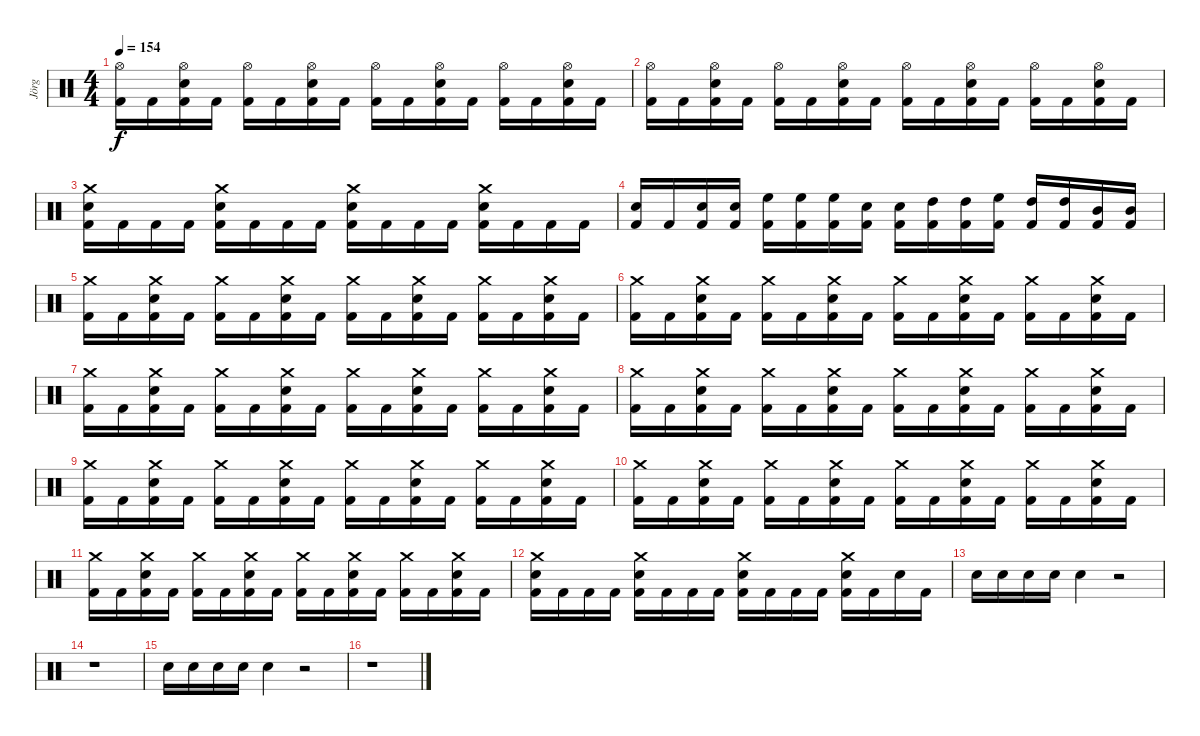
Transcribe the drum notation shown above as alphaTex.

\track ("Jörg" "Jörg") {instrument percussion}
\staff {score}
\articulation defaults
\ts (4 4)
\tempo 154
\clef neutral
\ks c
("Hi-Hat (open)" "Kick (hit) 2").16{dy f} "Kick (hit) 2".16 ("Snare (hit) 2" "Hi-Hat (open)" "Kick (hit) 2").16 "Kick (hit) 2".16 ("Hi-Hat (open)" "Kick (hit) 2").16 "Kick (hit) 2".16 ("Snare (hit) 2" "Hi-Hat (open)" "Kick (hit) 2").16 "Kick (hit) 2".16 ("Hi-Hat (open)" "Kick (hit) 2").16 "Kick (hit) 2".16 ("Snare (hit) 2" "Hi-Hat (open)" "Kick (hit) 2").16 "Kick (hit) 2".16 ("Hi-Hat (open)" "Kick (hit) 2").16 "Kick (hit) 2".16 ("Snare (hit) 2" "Hi-Hat (open)" "Kick (hit) 2").16 "Kick (hit) 2".16 |
("Hi-Hat (open)" "Kick (hit) 2").16 "Kick (hit) 2".16 ("Snare (hit) 2" "Hi-Hat (open)" "Kick (hit) 2").16 "Kick (hit) 2".16 ("Hi-Hat (open)" "Kick (hit) 2").16 "Kick (hit) 2".16 ("Snare (hit) 2" "Hi-Hat (open)" "Kick (hit) 2").16 "Kick (hit) 2".16 ("Hi-Hat (open)" "Kick (hit) 2").16 "Kick (hit) 2".16 ("Snare (hit) 2" "Hi-Hat (open)" "Kick (hit) 2").16 "Kick (hit) 2".16 ("Hi-Hat (open)" "Kick (hit) 2").16 "Kick (hit) 2".16 ("Snare (hit) 2" "Hi-Hat (open)" "Kick (hit) 2").16 "Kick (hit) 2".16 |
("Snare (hit) 2" "Crash medium (hit)" "Kick (hit) 2").16 "Kick (hit) 2".16 "Kick (hit) 2".16 "Kick (hit) 2".16 ("Snare (hit) 2" "Crash medium (hit)" "Kick (hit) 2").16 "Kick (hit) 2".16 "Kick (hit) 2".16 "Kick (hit) 2".16 ("Snare (hit) 2" "Crash medium (hit)" "Kick (hit) 2").16 "Kick (hit) 2".16 "Kick (hit) 2".16 "Kick (hit) 2".16 ("Snare (hit) 2" "Crash medium (hit)" "Kick (hit) 2").16 "Kick (hit) 2".16 "Kick (hit) 2".16 "Kick (hit) 2".16 |
("Snare (hit) 2" "Kick (hit) 2").16 "Kick (hit) 2".16 ("Snare (hit) 2" "Kick (hit) 2").16 ("Snare (hit) 2" "Kick (hit) 2").16 ("High Floor Tom (hit)" "Kick (hit) 2").16 ("High Floor Tom (hit)" "Kick (hit) 2").16 ("High Floor Tom (hit)" "Kick (hit) 2").16 ("Snare (hit) 2" "Kick (hit) 2").16 ("Snare (hit) 2" "Kick (hit) 2").16 ("High Tom (hit)" "Kick (hit) 2").16 ("High Tom (hit)" "Kick (hit) 2").16 ("High Floor Tom (hit)" "Kick (hit) 2").16 ("High Tom (hit)" "Kick (hit) 2").16 ("High Tom (hit)" "Kick (hit) 2").16 ("Mid Tom (hit)" "Kick (hit) 2").16 ("Mid Tom (hit)" "Kick (hit) 2").16 |
("Crash medium (hit)" "Kick (hit) 2").16 "Kick (hit) 2".16 ("Snare (hit) 2" "Crash medium (hit)" "Kick (hit) 2").16 "Kick (hit) 2".16 ("Crash medium (hit)" "Kick (hit) 2").16 "Kick (hit) 2".16 ("Snare (hit) 2" "Crash medium (hit)" "Kick (hit) 2").16 "Kick (hit) 2".16 ("Crash medium (hit)" "Kick (hit) 2").16 "Kick (hit) 2".16 ("Snare (hit) 2" "Crash medium (hit)" "Kick (hit) 2").16 "Kick (hit) 2".16 ("Crash medium (hit)" "Kick (hit) 2").16 "Kick (hit) 2".16 ("Snare (hit) 2" "Crash medium (hit)" "Kick (hit) 2").16 "Kick (hit) 2".16 |
("Crash medium (hit)" "Kick (hit) 2").16 "Kick (hit) 2".16 ("Snare (hit) 2" "Crash medium (hit)" "Kick (hit) 2").16 "Kick (hit) 2".16 ("Crash medium (hit)" "Kick (hit) 2").16 "Kick (hit) 2".16 ("Snare (hit) 2" "Crash medium (hit)" "Kick (hit) 2").16 "Kick (hit) 2".16 ("Crash medium (hit)" "Kick (hit) 2").16 "Kick (hit) 2".16 ("Snare (hit) 2" "Crash medium (hit)" "Kick (hit) 2").16 "Kick (hit) 2".16 ("Crash medium (hit)" "Kick (hit) 2").16 "Kick (hit) 2".16 ("Snare (hit) 2" "Crash medium (hit)" "Kick (hit) 2").16 "Kick (hit) 2".16 |
("Crash medium (hit)" "Kick (hit) 2").16 "Kick (hit) 2".16 ("Snare (hit) 2" "Crash medium (hit)" "Kick (hit) 2").16 "Kick (hit) 2".16 ("Crash medium (hit)" "Kick (hit) 2").16 "Kick (hit) 2".16 ("Snare (hit) 2" "Crash medium (hit)" "Kick (hit) 2").16 "Kick (hit) 2".16 ("Crash medium (hit)" "Kick (hit) 2").16 "Kick (hit) 2".16 ("Snare (hit) 2" "Crash medium (hit)" "Kick (hit) 2").16 "Kick (hit) 2".16 ("Crash medium (hit)" "Kick (hit) 2").16 "Kick (hit) 2".16 ("Snare (hit) 2" "Crash medium (hit)" "Kick (hit) 2").16 "Kick (hit) 2".16 |
("Crash medium (hit)" "Kick (hit) 2").16 "Kick (hit) 2".16 ("Snare (hit) 2" "Crash medium (hit)" "Kick (hit) 2").16 "Kick (hit) 2".16 ("Crash medium (hit)" "Kick (hit) 2").16 "Kick (hit) 2".16 ("Snare (hit) 2" "Crash medium (hit)" "Kick (hit) 2").16 "Kick (hit) 2".16 ("Crash medium (hit)" "Kick (hit) 2").16 "Kick (hit) 2".16 ("Snare (hit) 2" "Crash medium (hit)" "Kick (hit) 2").16 "Kick (hit) 2".16 ("Crash medium (hit)" "Kick (hit) 2").16 "Kick (hit) 2".16 ("Snare (hit) 2" "Crash medium (hit)" "Kick (hit) 2").16 "Kick (hit) 2".16 |
("Crash medium (hit)" "Kick (hit) 2").16 "Kick (hit) 2".16 ("Snare (hit) 2" "Crash medium (hit)" "Kick (hit) 2").16 "Kick (hit) 2".16 ("Crash medium (hit)" "Kick (hit) 2").16 "Kick (hit) 2".16 ("Snare (hit) 2" "Crash medium (hit)" "Kick (hit) 2").16 "Kick (hit) 2".16 ("Crash medium (hit)" "Kick (hit) 2").16 "Kick (hit) 2".16 ("Snare (hit) 2" "Crash medium (hit)" "Kick (hit) 2").16 "Kick (hit) 2".16 ("Crash medium (hit)" "Kick (hit) 2").16 "Kick (hit) 2".16 ("Snare (hit) 2" "Crash medium (hit)" "Kick (hit) 2").16 "Kick (hit) 2".16 |
("Crash medium (hit)" "Kick (hit) 2").16 "Kick (hit) 2".16 ("Snare (hit) 2" "Crash medium (hit)" "Kick (hit) 2").16 "Kick (hit) 2".16 ("Crash medium (hit)" "Kick (hit) 2").16 "Kick (hit) 2".16 ("Snare (hit) 2" "Crash medium (hit)" "Kick (hit) 2").16 "Kick (hit) 2".16 ("Crash medium (hit)" "Kick (hit) 2").16 "Kick (hit) 2".16 ("Snare (hit) 2" "Crash medium (hit)" "Kick (hit) 2").16 "Kick (hit) 2".16 ("Crash medium (hit)" "Kick (hit) 2").16 "Kick (hit) 2".16 ("Snare (hit) 2" "Crash medium (hit)" "Kick (hit) 2").16 "Kick (hit) 2".16 |
("Crash medium (hit)" "Kick (hit) 2").16 "Kick (hit) 2".16 ("Snare (hit) 2" "Crash medium (hit)" "Kick (hit) 2").16 "Kick (hit) 2".16 ("Crash medium (hit)" "Kick (hit) 2").16 "Kick (hit) 2".16 ("Snare (hit) 2" "Crash medium (hit)" "Kick (hit) 2").16 "Kick (hit) 2".16 ("Crash medium (hit)" "Kick (hit) 2").16 "Kick (hit) 2".16 ("Snare (hit) 2" "Crash medium (hit)" "Kick (hit) 2").16 "Kick (hit) 2".16 ("Crash medium (hit)" "Kick (hit) 2").16 "Kick (hit) 2".16 ("Snare (hit) 2" "Crash medium (hit)" "Kick (hit) 2").16 "Kick (hit) 2".16 |
("Snare (hit) 2" "Crash medium (hit)" "Kick (hit) 2").16 "Kick (hit) 2".16 "Kick (hit) 2".16 "Kick (hit) 2".16 ("Snare (hit) 2" "Crash medium (hit)" "Kick (hit) 2").16 "Kick (hit) 2".16 "Kick (hit) 2".16 "Kick (hit) 2".16 ("Snare (hit) 2" "Crash medium (hit)" "Kick (hit) 2").16 "Kick (hit) 2".16 "Kick (hit) 2".16 "Kick (hit) 2".16 ("Snare (hit) 2" "Crash medium (hit)" "Kick (hit) 2").16 "Kick (hit) 2".16 "Snare (hit) 2".16 "Kick (hit) 2".16 |
"Snare (hit) 2".16 "Snare (hit) 2".16 "Snare (hit) 2".16 "Snare (hit) 2".16 "Snare (hit) 2".4 r.2 |
r.1 |
"Snare (hit) 2".16 "Snare (hit) 2".16 "Snare (hit) 2".16 "Snare (hit) 2".16 "Snare (hit) 2".4 r.2 |
r.1
